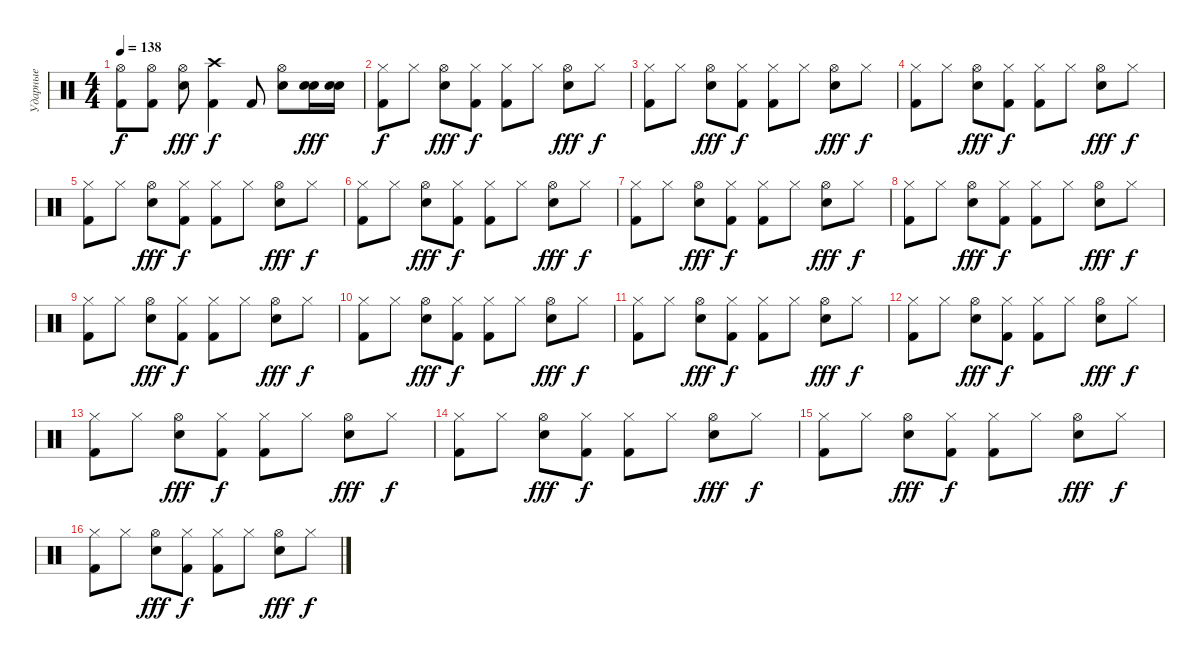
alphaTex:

\track ("Ударные" "Ударные") {instrument percussion}
\staff {score}
\articulation defaults
\ts (4 4)
\tempo 138
\clef neutral
\ks c
("Hi-Hat (open)" "Kick (hit) 2").8{dy f} ("Hi-Hat (open)" "Kick (hit) 2").8 ("Hi-Hat (open)" "Electric Snare (hit)").8{dy fff} ("Crash high (hit)" "Kick (hit) 2").4{dy f} "Kick (hit) 2".8 ("Hi-Hat (open)" "Electric Snare (hit)").8 ("Electric Snare (hit)" "Electric Snare (hit)").16{dy fff} ("Electric Snare (hit)" "Electric Snare (hit)").16 |
("Hi-Hat (closed)" "Kick (hit) 2").8{dy f} "Hi-Hat (closed)".8 ("Hi-Hat (open)" "Electric Snare (hit)").8{dy fff} ("Hi-Hat (closed)" "Kick (hit) 2").8{dy f} ("Hi-Hat (closed)" "Kick (hit) 2").8 "Hi-Hat (closed)".8 ("Hi-Hat (open)" "Electric Snare (hit)").8{dy fff} "Hi-Hat (closed)".8{dy f} |
("Hi-Hat (closed)" "Kick (hit) 2").8 "Hi-Hat (closed)".8 ("Hi-Hat (open)" "Electric Snare (hit)").8{dy fff} ("Hi-Hat (closed)" "Kick (hit) 2").8{dy f} ("Hi-Hat (closed)" "Kick (hit) 2").8 "Hi-Hat (closed)".8 ("Hi-Hat (open)" "Electric Snare (hit)").8{dy fff} "Hi-Hat (closed)".8{dy f} |
("Hi-Hat (closed)" "Kick (hit) 2").8 "Hi-Hat (closed)".8 ("Hi-Hat (open)" "Electric Snare (hit)").8{dy fff} ("Hi-Hat (closed)" "Kick (hit) 2").8{dy f} ("Hi-Hat (closed)" "Kick (hit) 2").8 "Hi-Hat (closed)".8 ("Hi-Hat (open)" "Electric Snare (hit)").8{dy fff} "Hi-Hat (closed)".8{dy f} |
("Hi-Hat (closed)" "Kick (hit) 2").8 "Hi-Hat (closed)".8 ("Hi-Hat (open)" "Electric Snare (hit)").8{dy fff} ("Hi-Hat (closed)" "Kick (hit) 2").8{dy f} ("Hi-Hat (closed)" "Kick (hit) 2").8 "Hi-Hat (closed)".8 ("Hi-Hat (open)" "Electric Snare (hit)").8{dy fff} "Hi-Hat (closed)".8{dy f} |
("Hi-Hat (closed)" "Kick (hit) 2").8 "Hi-Hat (closed)".8 ("Hi-Hat (open)" "Electric Snare (hit)").8{dy fff} ("Hi-Hat (closed)" "Kick (hit) 2").8{dy f} ("Hi-Hat (closed)" "Kick (hit) 2").8 "Hi-Hat (closed)".8 ("Hi-Hat (open)" "Electric Snare (hit)").8{dy fff} "Hi-Hat (closed)".8{dy f} |
("Hi-Hat (closed)" "Kick (hit) 2").8 "Hi-Hat (closed)".8 ("Hi-Hat (open)" "Electric Snare (hit)").8{dy fff} ("Hi-Hat (closed)" "Kick (hit) 2").8{dy f} ("Hi-Hat (closed)" "Kick (hit) 2").8 "Hi-Hat (closed)".8 ("Hi-Hat (open)" "Electric Snare (hit)").8{dy fff} "Hi-Hat (closed)".8{dy f} |
("Hi-Hat (closed)" "Kick (hit) 2").8 "Hi-Hat (closed)".8 ("Hi-Hat (open)" "Electric Snare (hit)").8{dy fff} ("Hi-Hat (closed)" "Kick (hit) 2").8{dy f} ("Hi-Hat (closed)" "Kick (hit) 2").8 "Hi-Hat (closed)".8 ("Hi-Hat (open)" "Electric Snare (hit)").8{dy fff} "Hi-Hat (closed)".8{dy f} |
("Hi-Hat (closed)" "Kick (hit) 2").8 "Hi-Hat (closed)".8 ("Hi-Hat (open)" "Electric Snare (hit)").8{dy fff} ("Hi-Hat (closed)" "Kick (hit) 2").8{dy f} ("Hi-Hat (closed)" "Kick (hit) 2").8 "Hi-Hat (closed)".8 ("Hi-Hat (open)" "Electric Snare (hit)").8{dy fff} "Hi-Hat (closed)".8{dy f} |
("Hi-Hat (closed)" "Kick (hit) 2").8 "Hi-Hat (closed)".8 ("Hi-Hat (open)" "Electric Snare (hit)").8{dy fff} ("Hi-Hat (closed)" "Kick (hit) 2").8{dy f} ("Hi-Hat (closed)" "Kick (hit) 2").8 "Hi-Hat (closed)".8 ("Hi-Hat (open)" "Electric Snare (hit)").8{dy fff} "Hi-Hat (closed)".8{dy f} |
("Hi-Hat (closed)" "Kick (hit) 2").8 "Hi-Hat (closed)".8 ("Hi-Hat (open)" "Electric Snare (hit)").8{dy fff} ("Hi-Hat (closed)" "Kick (hit) 2").8{dy f} ("Hi-Hat (closed)" "Kick (hit) 2").8 "Hi-Hat (closed)".8 ("Hi-Hat (open)" "Electric Snare (hit)").8{dy fff} "Hi-Hat (closed)".8{dy f} |
("Hi-Hat (closed)" "Kick (hit) 2").8 "Hi-Hat (closed)".8 ("Hi-Hat (open)" "Electric Snare (hit)").8{dy fff} ("Hi-Hat (closed)" "Kick (hit) 2").8{dy f} ("Hi-Hat (closed)" "Kick (hit) 2").8 "Hi-Hat (closed)".8 ("Hi-Hat (open)" "Electric Snare (hit)").8{dy fff} "Hi-Hat (closed)".8{dy f} |
("Hi-Hat (closed)" "Kick (hit) 2").8 "Hi-Hat (closed)".8 ("Hi-Hat (open)" "Electric Snare (hit)").8{dy fff} ("Hi-Hat (closed)" "Kick (hit) 2").8{dy f} ("Hi-Hat (closed)" "Kick (hit) 2").8 "Hi-Hat (closed)".8 ("Hi-Hat (open)" "Electric Snare (hit)").8{dy fff} "Hi-Hat (closed)".8{dy f} |
("Hi-Hat (closed)" "Kick (hit) 2").8 "Hi-Hat (closed)".8 ("Hi-Hat (open)" "Electric Snare (hit)").8{dy fff} ("Hi-Hat (closed)" "Kick (hit) 2").8{dy f} ("Hi-Hat (closed)" "Kick (hit) 2").8 "Hi-Hat (closed)".8 ("Hi-Hat (open)" "Electric Snare (hit)").8{dy fff} "Hi-Hat (closed)".8{dy f} |
("Hi-Hat (closed)" "Kick (hit) 2").8 "Hi-Hat (closed)".8 ("Hi-Hat (open)" "Electric Snare (hit)").8{dy fff} ("Hi-Hat (closed)" "Kick (hit) 2").8{dy f} ("Hi-Hat (closed)" "Kick (hit) 2").8 "Hi-Hat (closed)".8 ("Hi-Hat (open)" "Electric Snare (hit)").8{dy fff} "Hi-Hat (closed)".8{dy f} |
("Hi-Hat (closed)" "Kick (hit) 2").8 "Hi-Hat (closed)".8 ("Hi-Hat (open)" "Electric Snare (hit)").8{dy fff} ("Hi-Hat (closed)" "Kick (hit) 2").8{dy f} ("Hi-Hat (closed)" "Kick (hit) 2").8 "Hi-Hat (closed)".8 ("Hi-Hat (open)" "Electric Snare (hit)").8{dy fff} "Hi-Hat (closed)".8{dy f}
